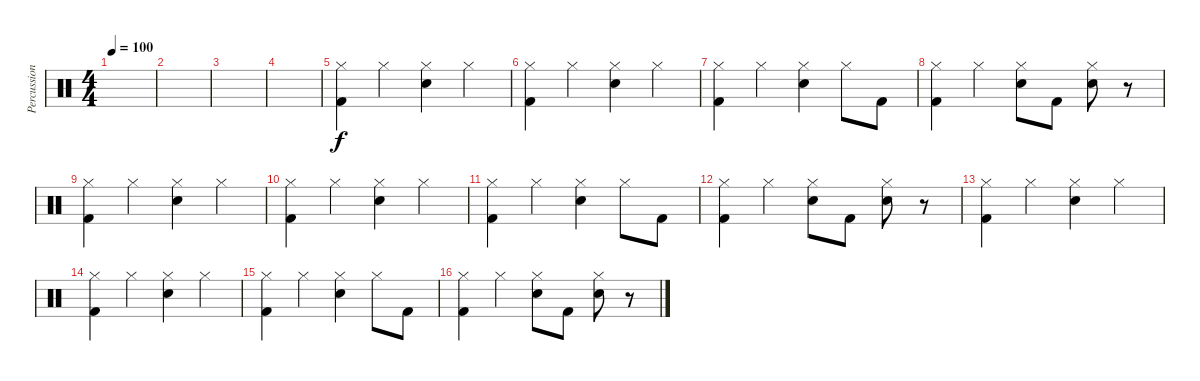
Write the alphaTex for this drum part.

\track ("Percussion" "Percussion") {instrument percussion}
\staff {score}
\articulation defaults
\ts (4 4)
\tempo 100
\clef neutral
\ks c
|
|
|
|
("Kick (hit) 2" "Hi-Hat (closed)").4 "Hi-Hat (closed)".4 ("Snare (hit) 2" "Hi-Hat (closed)").4 "Hi-Hat (closed)".4 |
("Kick (hit) 2" "Hi-Hat (closed)").4 "Hi-Hat (closed)".4 ("Snare (hit) 2" "Hi-Hat (closed)").4 "Hi-Hat (closed)".4 |
("Kick (hit) 2" "Hi-Hat (closed)").4 "Hi-Hat (closed)".4 ("Snare (hit) 2" "Hi-Hat (closed)").4 "Hi-Hat (closed)".8 "Kick (hit) 2".8 |
("Kick (hit) 2" "Hi-Hat (closed)").4 "Hi-Hat (closed)".4 ("Snare (hit) 2" "Hi-Hat (closed)").8 "Kick (hit) 2".8 ("Snare (hit) 2" "Hi-Hat (closed)").8 r.8 |
("Kick (hit) 2" "Hi-Hat (closed)").4 "Hi-Hat (closed)".4 ("Snare (hit) 2" "Hi-Hat (closed)").4 "Hi-Hat (closed)".4 |
("Kick (hit) 2" "Hi-Hat (closed)").4 "Hi-Hat (closed)".4 ("Snare (hit) 2" "Hi-Hat (closed)").4 "Hi-Hat (closed)".4 |
("Kick (hit) 2" "Hi-Hat (closed)").4 "Hi-Hat (closed)".4 ("Snare (hit) 2" "Hi-Hat (closed)").4 "Hi-Hat (closed)".8 "Kick (hit) 2".8 |
("Kick (hit) 2" "Hi-Hat (closed)").4 "Hi-Hat (closed)".4 ("Snare (hit) 2" "Hi-Hat (closed)").8 "Kick (hit) 2".8 ("Snare (hit) 2" "Hi-Hat (closed)").8 r.8 |
("Kick (hit) 2" "Hi-Hat (closed)").4 "Hi-Hat (closed)".4 ("Snare (hit) 2" "Hi-Hat (closed)").4 "Hi-Hat (closed)".4 |
("Kick (hit) 2" "Hi-Hat (closed)").4 "Hi-Hat (closed)".4 ("Snare (hit) 2" "Hi-Hat (closed)").4 "Hi-Hat (closed)".4 |
("Kick (hit) 2" "Hi-Hat (closed)").4 "Hi-Hat (closed)".4 ("Snare (hit) 2" "Hi-Hat (closed)").4 "Hi-Hat (closed)".8 "Kick (hit) 2".8 |
("Kick (hit) 2" "Hi-Hat (closed)").4 "Hi-Hat (closed)".4 ("Snare (hit) 2" "Hi-Hat (closed)").8 "Kick (hit) 2".8 ("Snare (hit) 2" "Hi-Hat (closed)").8 r.8
